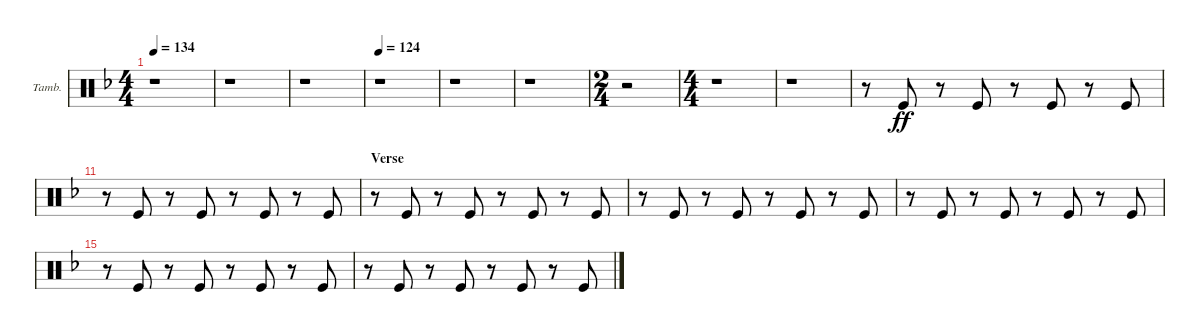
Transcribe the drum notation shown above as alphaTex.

\bracketExtendMode nobrackets
\firstSystemTrackNameOrientation horizontal
\otherSystemsTrackNameOrientation horizontal
\defaultBarNumberDisplay FirstOfSystem
\track ("Tambourine" "Tamb.") {instrument percussion}
\staff {score}
\articulation defaults
\ts (4 4)
\tempo 134
\clef neutral
\scale
0.333333
\ks f
r.1{dy ff} |
\scale
0.333333 r.1 |
\scale
0.333333 r.1 |
\tempo 124
\scale
0.333333 r.1 |
\scale
0.333333 r.1 |
\scale
0.333333 r.1 |
\ts (2 4)
\scale
0.369863 r.2 |
\ts (4 4)
\scale
0.369863 r.1 |
\scale
0.260274 r.1 |
\scale
0.333333 r.8 "Kick (hit)".8 r.8 "Kick (hit)".8 r.8 "Kick (hit)".8 r.8 "Kick (hit)".8 |
\scale
0.333333 r.8 "Kick (hit)".8 r.8 "Kick (hit)".8 r.8 "Kick (hit)".8 r.8 "Kick (hit)".8 |
\section ("" "Verse")
\scale
0.333333 r.8 "Kick (hit)".8 r.8 "Kick (hit)".8 r.8 "Kick (hit)".8 r.8 "Kick (hit)".8 |
\scale
0.333333 r.8 "Kick (hit)".8 r.8 "Kick (hit)".8 r.8 "Kick (hit)".8 r.8 "Kick (hit)".8 |
\scale
0.333333 r.8 "Kick (hit)".8 r.8 "Kick (hit)".8 r.8 "Kick (hit)".8 r.8 "Kick (hit)".8 |
\scale
0.333333 r.8 "Kick (hit)".8 r.8 "Kick (hit)".8 r.8 "Kick (hit)".8 r.8 "Kick (hit)".8 |
\scale
0.333333 r.8 "Kick (hit)".8 r.8 "Kick (hit)".8 r.8 "Kick (hit)".8 r.8 "Kick (hit)".8
